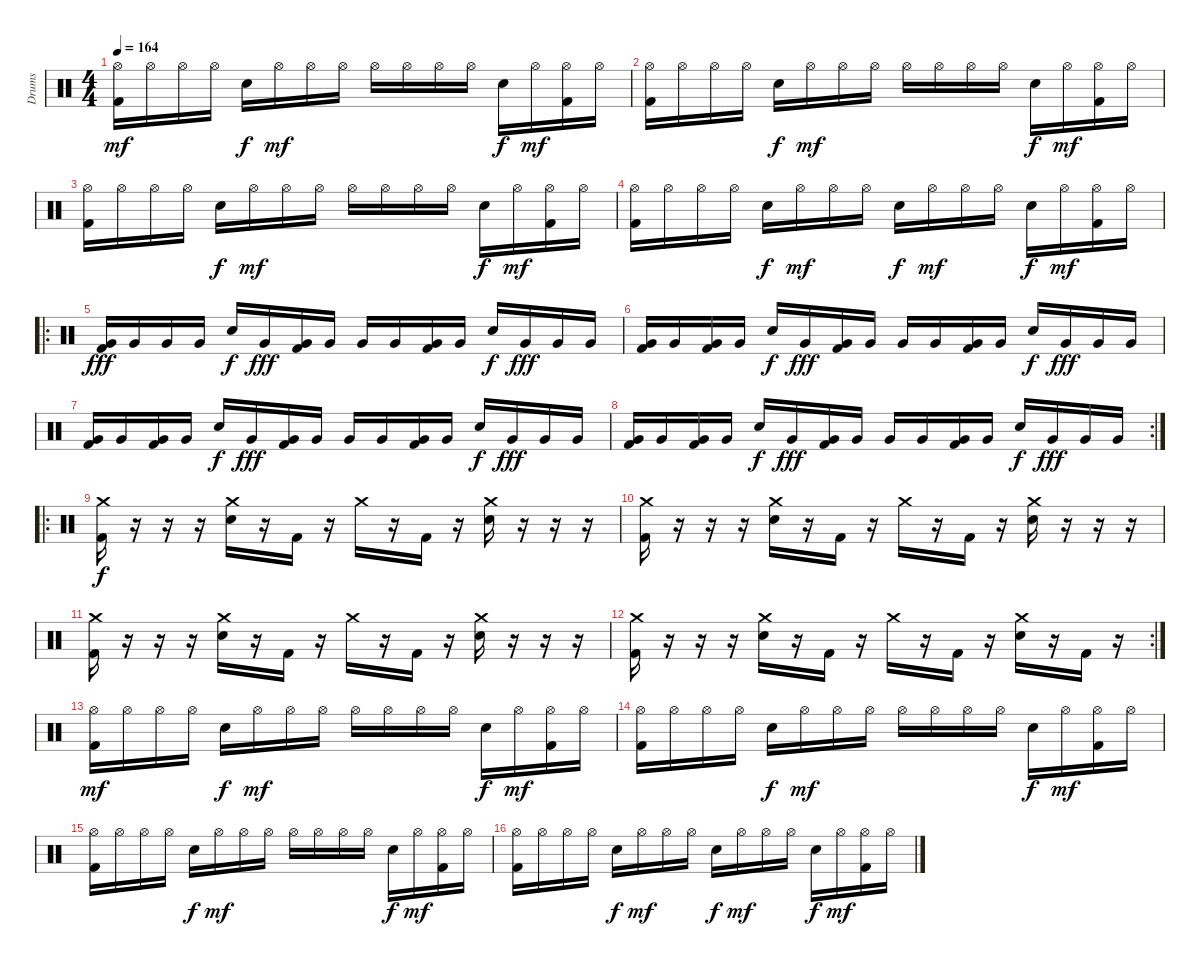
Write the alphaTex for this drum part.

\track ("Drums" "Drums") {instrument percussion}
\staff {score}
\articulation defaults
\ts (4 4)
\tempo 164
\clef neutral
\ks c
("Hi-Hat (open)" "Kick (hit) 2").16{dy mf} "Hi-Hat (open)".16 "Hi-Hat (open)".16 "Hi-Hat (open)".16 "Snare (hit) 2".16{dy f} "Hi-Hat (open)".16{dy mf} "Hi-Hat (open)".16 "Hi-Hat (open)".16 "Hi-Hat (open)".16 "Hi-Hat (open)".16 "Hi-Hat (open)".16 "Hi-Hat (open)".16 "Snare (hit) 2".16{dy f} "Hi-Hat (open)".16{dy mf} ("Hi-Hat (open)" "Kick (hit) 2").16 "Hi-Hat (open)".16 |
("Hi-Hat (open)" "Kick (hit) 2").16 "Hi-Hat (open)".16 "Hi-Hat (open)".16 "Hi-Hat (open)".16 "Snare (hit) 2".16{dy f} "Hi-Hat (open)".16{dy mf} "Hi-Hat (open)".16 "Hi-Hat (open)".16 "Hi-Hat (open)".16 "Hi-Hat (open)".16 "Hi-Hat (open)".16 "Hi-Hat (open)".16 "Snare (hit) 2".16{dy f} "Hi-Hat (open)".16{dy mf} ("Hi-Hat (open)" "Kick (hit) 2").16 "Hi-Hat (open)".16 |
("Hi-Hat (open)" "Kick (hit) 2").16 "Hi-Hat (open)".16 "Hi-Hat (open)".16 "Hi-Hat (open)".16 "Snare (hit) 2".16{dy f} "Hi-Hat (open)".16{dy mf} "Hi-Hat (open)".16 "Hi-Hat (open)".16 "Hi-Hat (open)".16 "Hi-Hat (open)".16 "Hi-Hat (open)".16 "Hi-Hat (open)".16 "Snare (hit) 2".16{dy f} "Hi-Hat (open)".16{dy mf} ("Hi-Hat (open)" "Kick (hit) 2").16 "Hi-Hat (open)".16 |
("Hi-Hat (open)" "Kick (hit) 2").16 "Hi-Hat (open)".16 "Hi-Hat (open)".16 "Hi-Hat (open)".16 "Snare (hit) 2".16{dy f} "Hi-Hat (open)".16{dy mf} "Hi-Hat (open)".16 "Hi-Hat (open)".16 "Snare (hit) 2".16{dy f} "Hi-Hat (open)".16{dy mf} "Hi-Hat (open)".16 "Hi-Hat (open)".16 "Snare (hit) 2".16{dy f} "Hi-Hat (open)".16{dy mf} ("Hi-Hat (open)" "Kick (hit) 2").16 "Hi-Hat (open)".16 |
\ro
("Very Low Tom (hit)" "Kick (hit) 2").16{dy fff} "Very Low Tom (hit)".16 "Very Low Tom (hit)".16 "Very Low Tom (hit)".16 "Snare (hit) 2".16{dy f} "Very Low Tom (hit)".16{dy fff} ("Very Low Tom (hit)" "Kick (hit) 2").16 "Very Low Tom (hit)".16 "Very Low Tom (hit)".16 "Very Low Tom (hit)".16 ("Very Low Tom (hit)" "Kick (hit) 2").16 "Very Low Tom (hit)".16 "Snare (hit) 2".16{dy f} "Very Low Tom (hit)".16{dy fff} "Very Low Tom (hit)".16 "Very Low Tom (hit)".16 |
("Very Low Tom (hit)" "Kick (hit) 2").16 "Very Low Tom (hit)".16 ("Very Low Tom (hit)" "Kick (hit) 2").16 "Very Low Tom (hit)".16 "Snare (hit) 2".16{dy f} "Very Low Tom (hit)".16{dy fff} ("Very Low Tom (hit)" "Kick (hit) 2").16 "Very Low Tom (hit)".16 "Very Low Tom (hit)".16 "Very Low Tom (hit)".16 ("Very Low Tom (hit)" "Kick (hit) 2").16 "Very Low Tom (hit)".16 "Snare (hit) 2".16{dy f} "Very Low Tom (hit)".16{dy fff} "Very Low Tom (hit)".16 "Very Low Tom (hit)".16 |
("Very Low Tom (hit)" "Kick (hit) 2").16 "Very Low Tom (hit)".16 ("Very Low Tom (hit)" "Kick (hit) 2").16 "Very Low Tom (hit)".16 "Snare (hit) 2".16{dy f} "Very Low Tom (hit)".16{dy fff} ("Very Low Tom (hit)" "Kick (hit) 2").16 "Very Low Tom (hit)".16 "Very Low Tom (hit)".16 "Very Low Tom (hit)".16 ("Very Low Tom (hit)" "Kick (hit) 2").16 "Very Low Tom (hit)".16 "Snare (hit) 2".16{dy f} "Very Low Tom (hit)".16{dy fff} "Very Low Tom (hit)".16 "Very Low Tom (hit)".16 |
\rc 2
("Very Low Tom (hit)" "Kick (hit) 2").16 "Very Low Tom (hit)".16 ("Very Low Tom (hit)" "Kick (hit) 2").16 "Very Low Tom (hit)".16 "Snare (hit) 2".16{dy f} "Very Low Tom (hit)".16{dy fff} ("Very Low Tom (hit)" "Kick (hit) 2").16 "Very Low Tom (hit)".16 "Very Low Tom (hit)".16 "Very Low Tom (hit)".16 ("Very Low Tom (hit)" "Kick (hit) 2").16 "Very Low Tom (hit)".16 "Snare (hit) 2".16{dy f} "Very Low Tom (hit)".16{dy fff} "Very Low Tom (hit)".16 "Very Low Tom (hit)".16 |
\ro
("Crash medium (hit)" "Kick (hit) 2").16{dy f} r.16 r.16 r.16 ("Crash medium (hit)" "Snare (hit) 2").16 r.16 "Kick (hit) 2".16 r.16 "Crash medium (hit)".16 r.16 "Kick (hit) 2".16 r.16 ("Crash medium (hit)" "Snare (hit) 2").16 r.16 r.16 r.16 |
("Crash medium (hit)" "Kick (hit) 2").16 r.16 r.16 r.16 ("Crash medium (hit)" "Snare (hit) 2").16 r.16 "Kick (hit) 2".16 r.16 "Crash medium (hit)".16 r.16 "Kick (hit) 2".16 r.16 ("Crash medium (hit)" "Snare (hit) 2").16 r.16 r.16 r.16 |
("Crash medium (hit)" "Kick (hit) 2").16 r.16 r.16 r.16 ("Crash medium (hit)" "Snare (hit) 2").16 r.16 "Kick (hit) 2".16 r.16 "Crash medium (hit)".16 r.16 "Kick (hit) 2".16 r.16 ("Crash medium (hit)" "Snare (hit) 2").16 r.16 r.16 r.16 |
\rc 2
("Crash medium (hit)" "Kick (hit) 2").16 r.16 r.16 r.16 ("Crash medium (hit)" "Snare (hit) 2").16 r.16 "Kick (hit) 2".16 r.16 "Crash medium (hit)".16 r.16 "Kick (hit) 2".16 r.16 ("Crash medium (hit)" "Snare (hit) 2").16 r.16 "Kick (hit) 2".16 r.16 |
("Hi-Hat (open)" "Kick (hit) 2").16{dy mf} "Hi-Hat (open)".16 "Hi-Hat (open)".16 "Hi-Hat (open)".16 "Snare (hit) 2".16{dy f} "Hi-Hat (open)".16{dy mf} "Hi-Hat (open)".16 "Hi-Hat (open)".16 "Hi-Hat (open)".16 "Hi-Hat (open)".16 "Hi-Hat (open)".16 "Hi-Hat (open)".16 "Snare (hit) 2".16{dy f} "Hi-Hat (open)".16{dy mf} ("Hi-Hat (open)" "Kick (hit) 2").16 "Hi-Hat (open)".16 |
("Hi-Hat (open)" "Kick (hit) 2").16 "Hi-Hat (open)".16 "Hi-Hat (open)".16 "Hi-Hat (open)".16 "Snare (hit) 2".16{dy f} "Hi-Hat (open)".16{dy mf} "Hi-Hat (open)".16 "Hi-Hat (open)".16 "Hi-Hat (open)".16 "Hi-Hat (open)".16 "Hi-Hat (open)".16 "Hi-Hat (open)".16 "Snare (hit) 2".16{dy f} "Hi-Hat (open)".16{dy mf} ("Hi-Hat (open)" "Kick (hit) 2").16 "Hi-Hat (open)".16 |
("Hi-Hat (open)" "Kick (hit) 2").16 "Hi-Hat (open)".16 "Hi-Hat (open)".16 "Hi-Hat (open)".16 "Snare (hit) 2".16{dy f} "Hi-Hat (open)".16{dy mf} "Hi-Hat (open)".16 "Hi-Hat (open)".16 "Hi-Hat (open)".16 "Hi-Hat (open)".16 "Hi-Hat (open)".16 "Hi-Hat (open)".16 "Snare (hit) 2".16{dy f} "Hi-Hat (open)".16{dy mf} ("Hi-Hat (open)" "Kick (hit) 2").16 "Hi-Hat (open)".16 |
("Hi-Hat (open)" "Kick (hit) 2").16 "Hi-Hat (open)".16 "Hi-Hat (open)".16 "Hi-Hat (open)".16 "Snare (hit) 2".16{dy f} "Hi-Hat (open)".16{dy mf} "Hi-Hat (open)".16 "Hi-Hat (open)".16 "Snare (hit) 2".16{dy f} "Hi-Hat (open)".16{dy mf} "Hi-Hat (open)".16 "Hi-Hat (open)".16 "Snare (hit) 2".16{dy f} "Hi-Hat (open)".16{dy mf} ("Hi-Hat (open)" "Kick (hit) 2").16 "Hi-Hat (open)".16
